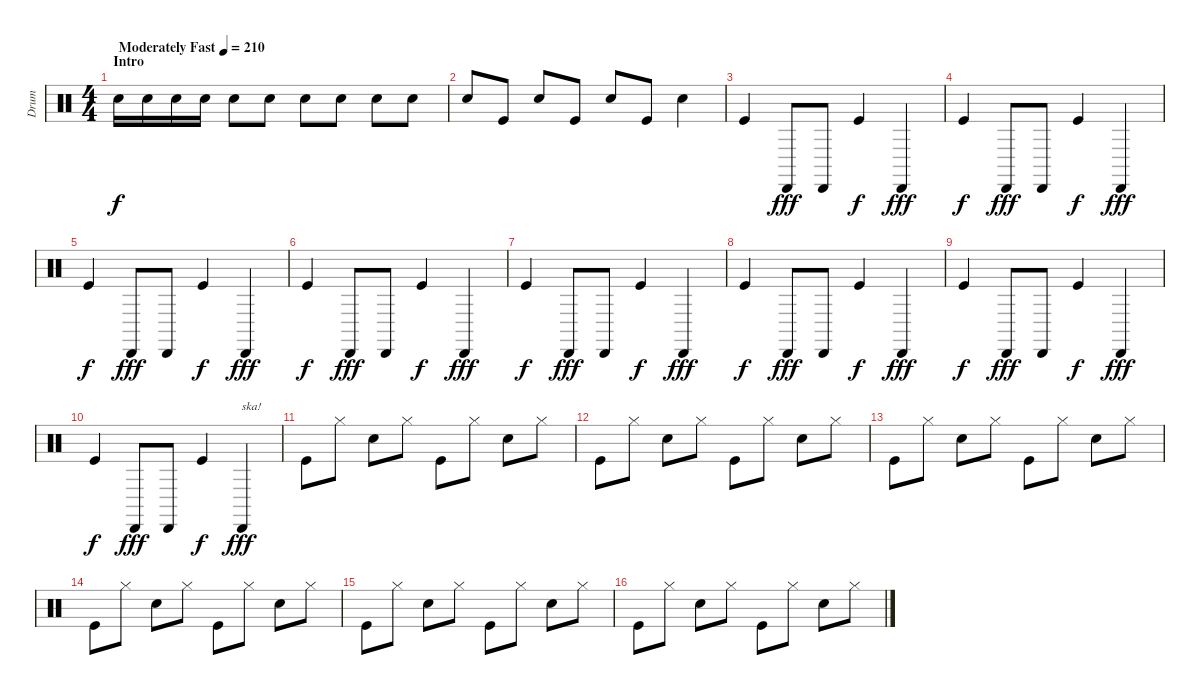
\track ("Drum" "Drum") {instrument percussion}
\staff
\articulation defaults
\ts (4 4)
\section ("" "Intro")
\tempo (210 "Moderately Fast")
\clef neutral
\ks c "Snare (hit) 2".16{dy f} "Snare (hit) 2".16 "Snare (hit) 2".16 "Snare (hit) 2".16 "Snare (hit) 2".8 "Snare (hit) 2".8 "Snare (hit) 2".8 "Snare (hit) 2".8 "Snare (hit) 2".8 "Snare (hit) 2".8
|
"Snare (hit) 2".8 "Kick (hit)".8 "Snare (hit) 2".8 "Kick (hit)".8 "Snare (hit) 2".8 "Kick (hit)".8 "Snare (hit) 2".4 |
"Kick (hit)".4 "Cabasa (hit)".8{dy fff} "Cabasa (hit)".8 "Kick (hit)".4{dy f} "Cabasa (hit)".4{dy fff} |
"Kick (hit)".4{dy f} "Cabasa (hit)".8{dy fff} "Cabasa (hit)".8 "Kick (hit)".4{dy f} "Cabasa (hit)".4{dy fff} |
"Kick (hit)".4{dy f} "Cabasa (hit)".8{dy fff} "Cabasa (hit)".8 "Kick (hit)".4{dy f} "Cabasa (hit)".4{dy fff} |
"Kick (hit)".4{dy f} "Cabasa (hit)".8{dy fff} "Cabasa (hit)".8 "Kick (hit)".4{dy f} "Cabasa (hit)".4{dy fff} |
"Kick (hit)".4{dy f} "Cabasa (hit)".8{dy fff} "Cabasa (hit)".8 "Kick (hit)".4{dy f} "Cabasa (hit)".4{dy fff} |
"Kick (hit)".4{dy f} "Cabasa (hit)".8{dy fff} "Cabasa (hit)".8 "Kick (hit)".4{dy f} "Cabasa (hit)".4{dy fff} |
"Kick (hit)".4{dy f} "Cabasa (hit)".8{dy fff} "Cabasa (hit)".8 "Kick (hit)".4{dy f} "Cabasa (hit)".4{dy fff} |
"Kick (hit)".4{dy f} "Cabasa (hit)".8{dy fff} "Cabasa (hit)".8 "Kick (hit)".4{dy f} "Cabasa (hit)".4{txt "ska!" dy fff} |
"Kick (hit)".8 "Hi-Hat (closed)".8 "Snare (hit) 2".8 "Hi-Hat (closed)".8 "Kick (hit)".8 "Hi-Hat (closed)".8 "Snare (hit) 2".8 "Hi-Hat (closed)".8 |
"Kick (hit)".8 "Hi-Hat (closed)".8 "Snare (hit) 2".8 "Hi-Hat (closed)".8 "Kick (hit)".8 "Hi-Hat (closed)".8 "Snare (hit) 2".8 "Hi-Hat (closed)".8 |
"Kick (hit)".8 "Hi-Hat (closed)".8 "Snare (hit) 2".8 "Hi-Hat (closed)".8 "Kick (hit)".8 "Hi-Hat (closed)".8 "Snare (hit) 2".8 "Hi-Hat (closed)".8 |
"Kick (hit)".8 "Hi-Hat (closed)".8 "Snare (hit) 2".8 "Hi-Hat (closed)".8 "Kick (hit)".8 "Hi-Hat (closed)".8 "Snare (hit) 2".8 "Hi-Hat (closed)".8 |
"Kick (hit)".8 "Hi-Hat (closed)".8 "Snare (hit) 2".8 "Hi-Hat (closed)".8 "Kick (hit)".8 "Hi-Hat (closed)".8 "Snare (hit) 2".8 "Hi-Hat (closed)".8 |
"Kick (hit)".8 "Hi-Hat (closed)".8 "Snare (hit) 2".8 "Hi-Hat (closed)".8 "Kick (hit)".8 "Hi-Hat (closed)".8 "Snare (hit) 2".8 "Hi-Hat (closed)".8
